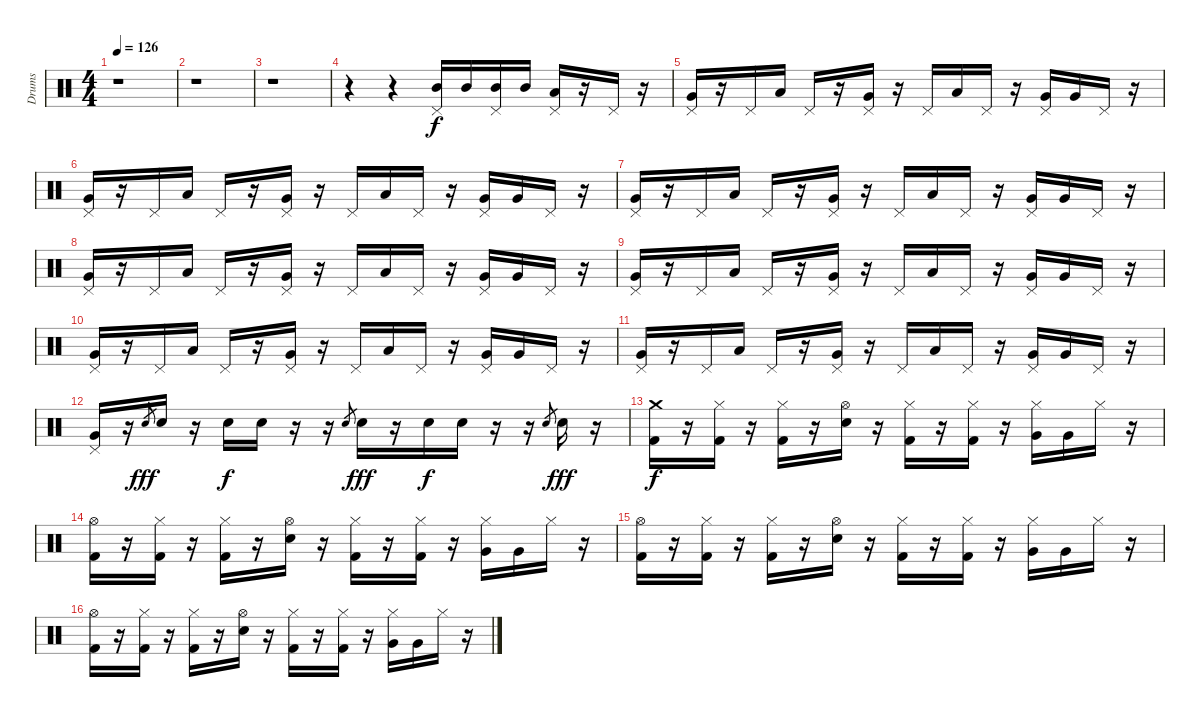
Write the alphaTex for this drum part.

\track ("Drums" "Drums") {instrument percussion}
\staff {score}
\articulation defaults
\ts (4 4)
\tempo 126
\clef neutral
\ks c
r.1{dy f} |
r.1 |
r.1 |
r.4 r.4 ("Pedal Hi-Hat (hit)" "Mid Tom (hit)").16 "Mid Tom (hit)".16 ("Pedal Hi-Hat (hit)" "Mid Tom (hit)").16 "Mid Tom (hit)".16 ("Pedal Hi-Hat (hit)" "Low Tom (hit)").16 r.16 "Pedal Hi-Hat (hit)".16 r.16 |
("Pedal Hi-Hat (hit)" "Very Low Tom (hit)").16 r.16 "Pedal Hi-Hat (hit)".16 "Low Floor Tom (hit)".16 "Pedal Hi-Hat (hit)".16 r.16 ("Pedal Hi-Hat (hit)" "Very Low Tom (hit)").16 r.16 "Pedal Hi-Hat (hit)".16 "Low Floor Tom (hit)".16 "Pedal Hi-Hat (hit)".16 r.16 ("Pedal Hi-Hat (hit)" "Very Low Tom (hit)").16 "Very Low Tom (hit)".16 "Pedal Hi-Hat (hit)".16 r.16 |
("Pedal Hi-Hat (hit)" "Very Low Tom (hit)").16 r.16 "Pedal Hi-Hat (hit)".16 "Low Floor Tom (hit)".16 "Pedal Hi-Hat (hit)".16 r.16 ("Pedal Hi-Hat (hit)" "Very Low Tom (hit)").16 r.16 "Pedal Hi-Hat (hit)".16 "Low Floor Tom (hit)".16 "Pedal Hi-Hat (hit)".16 r.16 ("Pedal Hi-Hat (hit)" "Very Low Tom (hit)").16 "Very Low Tom (hit)".16 "Pedal Hi-Hat (hit)".16 r.16 |
("Pedal Hi-Hat (hit)" "Very Low Tom (hit)").16 r.16 "Pedal Hi-Hat (hit)".16 "Low Floor Tom (hit)".16 "Pedal Hi-Hat (hit)".16 r.16 ("Pedal Hi-Hat (hit)" "Very Low Tom (hit)").16 r.16 "Pedal Hi-Hat (hit)".16 "Low Floor Tom (hit)".16 "Pedal Hi-Hat (hit)".16 r.16 ("Pedal Hi-Hat (hit)" "Very Low Tom (hit)").16 "Very Low Tom (hit)".16 "Pedal Hi-Hat (hit)".16 r.16 |
("Pedal Hi-Hat (hit)" "Very Low Tom (hit)").16 r.16 "Pedal Hi-Hat (hit)".16 "Low Floor Tom (hit)".16 "Pedal Hi-Hat (hit)".16 r.16 ("Pedal Hi-Hat (hit)" "Very Low Tom (hit)").16 r.16 "Pedal Hi-Hat (hit)".16 "Low Floor Tom (hit)".16 "Pedal Hi-Hat (hit)".16 r.16 ("Pedal Hi-Hat (hit)" "Very Low Tom (hit)").16 "Very Low Tom (hit)".16 "Pedal Hi-Hat (hit)".16 r.16 |
("Pedal Hi-Hat (hit)" "Very Low Tom (hit)").16 r.16 "Pedal Hi-Hat (hit)".16 "Low Floor Tom (hit)".16 "Pedal Hi-Hat (hit)".16 r.16 ("Pedal Hi-Hat (hit)" "Very Low Tom (hit)").16 r.16 "Pedal Hi-Hat (hit)".16 "Low Floor Tom (hit)".16 "Pedal Hi-Hat (hit)".16 r.16 ("Pedal Hi-Hat (hit)" "Very Low Tom (hit)").16 "Very Low Tom (hit)".16 "Pedal Hi-Hat (hit)".16 r.16 |
("Pedal Hi-Hat (hit)" "Very Low Tom (hit)").16 r.16 "Pedal Hi-Hat (hit)".16 "Low Floor Tom (hit)".16 "Pedal Hi-Hat (hit)".16 r.16 ("Pedal Hi-Hat (hit)" "Very Low Tom (hit)").16 r.16 "Pedal Hi-Hat (hit)".16 "Low Floor Tom (hit)".16 "Pedal Hi-Hat (hit)".16 r.16 ("Pedal Hi-Hat (hit)" "Very Low Tom (hit)").16 "Very Low Tom (hit)".16 "Pedal Hi-Hat (hit)".16 r.16 |
("Pedal Hi-Hat (hit)" "Very Low Tom (hit)").16 r.16 "Pedal Hi-Hat (hit)".16 "Low Floor Tom (hit)".16 "Pedal Hi-Hat (hit)".16 r.16 ("Pedal Hi-Hat (hit)" "Very Low Tom (hit)").16 r.16 "Pedal Hi-Hat (hit)".16 "Low Floor Tom (hit)".16 "Pedal Hi-Hat (hit)".16 r.16 ("Pedal Hi-Hat (hit)" "Very Low Tom (hit)").16 "Very Low Tom (hit)".16 "Pedal Hi-Hat (hit)".16 r.16 |
("Pedal Hi-Hat (hit)" "Very Low Tom (hit)").16 r.16 "Snare (hit) 2".8{gr dy fff} "Snare (hit) 2".16 r.16 "Snare (hit) 2".16{dy f} "Snare (hit) 2".16 r.16 r.16 "Snare (hit) 2".8{gr} "Snare (hit) 2".16{dy fff} r.16 "Snare (hit) 2".16{dy f} "Snare (hit) 2".16 r.16 r.16 "Snare (hit) 2".8{gr} "Snare (hit) 2".16{dy fff} r.16 |
("Crash medium (hit)" "Kick (hit) 2").16{dy f} r.16 ("Hi-Hat (closed)" "Kick (hit) 2").16 r.16 ("Hi-Hat (closed)" "Kick (hit) 2").16 r.16 ("Hi-Hat (open)" "Snare (hit) 2").16 r.16 ("Hi-Hat (closed)" "Kick (hit) 2").16 r.16 ("Hi-Hat (closed)" "Kick (hit) 2").16 r.16 ("Hi-Hat (closed)" "Very Low Tom (hit)").16 "Very Low Tom (hit)".16 "Hi-Hat (closed)".16 r.16 |
("Hi-Hat (open)" "Kick (hit) 2").16 r.16 ("Hi-Hat (closed)" "Kick (hit) 2").16 r.16 ("Hi-Hat (closed)" "Kick (hit) 2").16 r.16 ("Hi-Hat (open)" "Snare (hit) 2").16 r.16 ("Hi-Hat (closed)" "Kick (hit) 2").16 r.16 ("Hi-Hat (closed)" "Kick (hit) 2").16 r.16 ("Hi-Hat (closed)" "Very Low Tom (hit)").16 "Very Low Tom (hit)".16 "Hi-Hat (closed)".16 r.16 |
("Hi-Hat (open)" "Kick (hit) 2").16 r.16 ("Hi-Hat (closed)" "Kick (hit) 2").16 r.16 ("Hi-Hat (closed)" "Kick (hit) 2").16 r.16 ("Hi-Hat (open)" "Snare (hit) 2").16 r.16 ("Hi-Hat (closed)" "Kick (hit) 2").16 r.16 ("Hi-Hat (closed)" "Kick (hit) 2").16 r.16 ("Hi-Hat (closed)" "Very Low Tom (hit)").16 "Very Low Tom (hit)".16 "Hi-Hat (closed)".16 r.16 |
("Hi-Hat (open)" "Kick (hit) 2").16 r.16 ("Hi-Hat (closed)" "Kick (hit) 2").16 r.16 ("Hi-Hat (closed)" "Kick (hit) 2").16 r.16 ("Hi-Hat (open)" "Snare (hit) 2").16 r.16 ("Hi-Hat (closed)" "Kick (hit) 2").16 r.16 ("Hi-Hat (closed)" "Kick (hit) 2").16 r.16 ("Hi-Hat (closed)" "Very Low Tom (hit)").16 "Very Low Tom (hit)".16 "Hi-Hat (closed)".16 r.16
